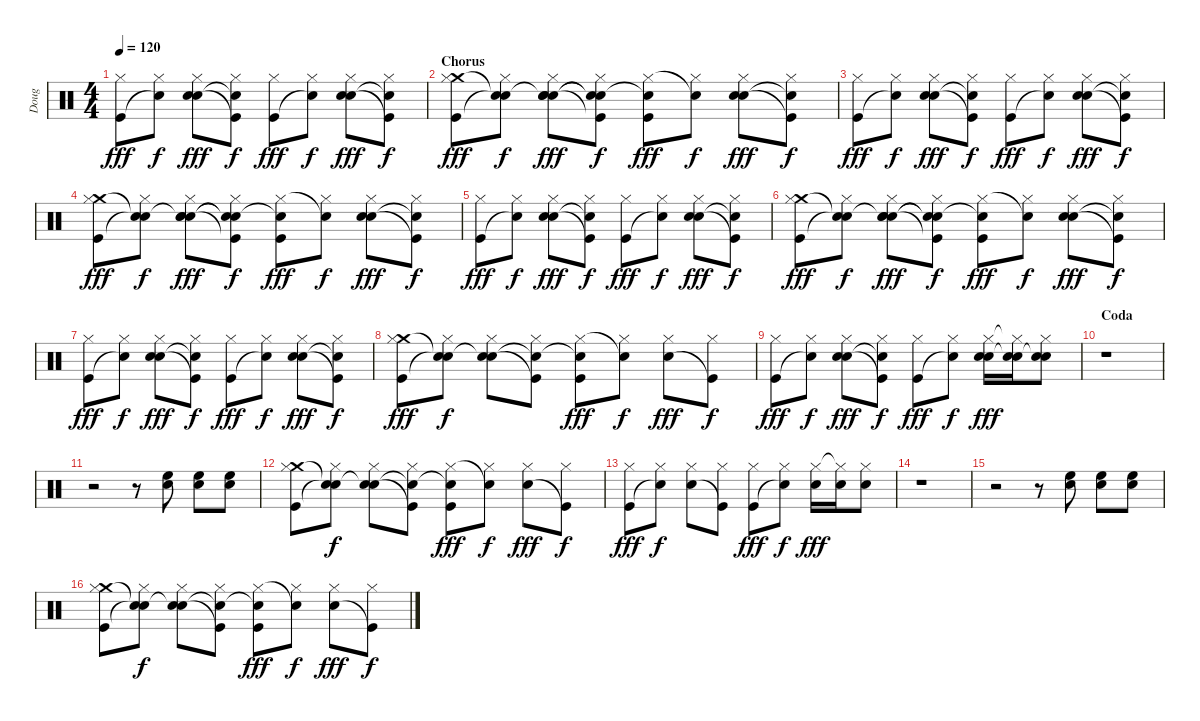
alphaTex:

\track ("Doug" "Doug") {instrument percussion}
\staff {score}
\articulation defaults
\ts (4 4)
\tempo 120
\clef neutral
\ks c
("Hi-Hat (closed)" "Kick (hit)").8{dy fff} ("Hi-Hat (closed)" "Snare (hit)"{t}).8{dy f} ("Hand Clap (hit)" "Hi-Hat (closed)" "Snare (hit) 2").8{dy fff} ("Snare (hit)"{t} "Hi-Hat (closed)" "Kick (hit)"{t}).8{dy f} ("Hi-Hat (closed)" "Kick (hit)").8{dy fff} ("Hi-Hat (closed)" "Snare (hit)"{t}).8{dy f} ("Hand Clap (hit)" "Hi-Hat (closed)" "Snare (hit) 2").8{dy fff} ("Snare (hit)"{t} "Hi-Hat (closed)" "Kick (hit)"{t}).8{dy f} |
\section ("" "Chorus")
("Crash medium (hit)" "Hi-Hat (closed)" "Kick (hit)").8{dy fff} ("Snare (hit)"{t} "Hi-Hat (closed)" "Snare (hit)"{t}).8{dy f} ("Snare (hit)"{t} "Hi-Hat (closed)" "Snare (hit) 2" "Hand Clap (hit)").8{dy fff} ("Snare (hit)"{t} "Hi-Hat (closed)" "Kick (hit)"{t} "Snare (hit)"{t}).8{dy f} ("Snare (hit)"{t} "Hi-Hat (closed)" "Kick (hit)").8{dy fff} ("Hi-Hat (closed)" "Snare (hit)"{t}).8{dy f} ("Hi-Hat (closed)" "Snare (hit) 2" "Hand Clap (hit)").8{dy fff} ("Hi-Hat (closed)" "Kick (hit)"{t} "Snare (hit)"{t}).8{dy f} |
("Hi-Hat (closed)" "Kick (hit)").8{dy fff} ("Hi-Hat (closed)" "Snare (hit)"{t}).8{dy f} ("Hand Clap (hit)" "Hi-Hat (closed)" "Snare (hit) 2").8{dy fff} ("Snare (hit)"{t} "Hi-Hat (closed)" "Kick (hit)"{t}).8{dy f} ("Hi-Hat (closed)" "Kick (hit)").8{dy fff} ("Hi-Hat (closed)" "Snare (hit)"{t}).8{dy f} ("Hand Clap (hit)" "Hi-Hat (closed)" "Snare (hit) 2").8{dy fff} ("Snare (hit)"{t} "Hi-Hat (closed)" "Kick (hit)"{t}).8{dy f} |
("Crash medium (hit)" "Hi-Hat (closed)" "Kick (hit)").8{dy fff} ("Snare (hit)"{t} "Hi-Hat (closed)" "Snare (hit)"{t}).8{dy f} ("Snare (hit)"{t} "Hi-Hat (closed)" "Snare (hit) 2" "Hand Clap (hit)").8{dy fff} ("Snare (hit)"{t} "Hi-Hat (closed)" "Kick (hit)"{t} "Snare (hit)"{t}).8{dy f} ("Snare (hit)"{t} "Hi-Hat (closed)" "Kick (hit)").8{dy fff} ("Hi-Hat (closed)" "Snare (hit)"{t}).8{dy f} ("Hi-Hat (closed)" "Snare (hit) 2" "Hand Clap (hit)").8{dy fff} ("Hi-Hat (closed)" "Kick (hit)"{t} "Snare (hit)"{t}).8{dy f} |
("Hi-Hat (closed)" "Kick (hit)").8{dy fff} ("Hi-Hat (closed)" "Snare (hit)"{t}).8{dy f} ("Hand Clap (hit)" "Hi-Hat (closed)" "Snare (hit) 2").8{dy fff} ("Snare (hit)"{t} "Hi-Hat (closed)" "Kick (hit)"{t}).8{dy f} ("Hi-Hat (closed)" "Kick (hit)").8{dy fff} ("Hi-Hat (closed)" "Snare (hit)"{t}).8{dy f} ("Hand Clap (hit)" "Hi-Hat (closed)" "Snare (hit) 2").8{dy fff} ("Snare (hit)"{t} "Hi-Hat (closed)" "Kick (hit)"{t}).8{dy f} |
("Crash medium (hit)" "Hi-Hat (closed)" "Kick (hit)").8{dy fff} ("Snare (hit)"{t} "Hi-Hat (closed)" "Snare (hit)"{t}).8{dy f} ("Snare (hit)"{t} "Hi-Hat (closed)" "Snare (hit) 2" "Hand Clap (hit)").8{dy fff} ("Snare (hit)"{t} "Hi-Hat (closed)" "Kick (hit)"{t} "Snare (hit)"{t}).8{dy f} ("Snare (hit)"{t} "Hi-Hat (closed)" "Kick (hit)").8{dy fff} ("Hi-Hat (closed)" "Snare (hit)"{t}).8{dy f} ("Hi-Hat (closed)" "Snare (hit) 2" "Hand Clap (hit)").8{dy fff} ("Hi-Hat (closed)" "Kick (hit)"{t} "Snare (hit)"{t}).8{dy f} |
("Hi-Hat (closed)" "Kick (hit)").8{dy fff} ("Hi-Hat (closed)" "Snare (hit)"{t}).8{dy f} ("Hand Clap (hit)" "Hi-Hat (closed)" "Snare (hit) 2").8{dy fff} ("Snare (hit)"{t} "Hi-Hat (closed)" "Kick (hit)"{t}).8{dy f} ("Hi-Hat (closed)" "Kick (hit)").8{dy fff} ("Hi-Hat (closed)" "Snare (hit)"{t}).8{dy f} ("Hand Clap (hit)" "Hi-Hat (closed)" "Snare (hit) 2").8{dy fff} ("Snare (hit)"{t} "Hi-Hat (closed)" "Kick (hit)"{t}).8{dy f} |
("Crash medium (hit)" "Hi-Hat (closed)" "Kick (hit)").8{dy fff} ("Snare (hit)"{t} "Hi-Hat (closed)" "Snare (hit)"{t}).8{dy f} ("Snare (hit)"{t} "Hi-Hat (closed)" "Snare (hit) 2").8 ("Snare (hit)"{t} "Hi-Hat (closed)" "Kick (hit)"{t}).8 ("Snare (hit)"{t} "Hi-Hat (closed)" "Kick (hit)").8{dy fff} ("Hi-Hat (closed)" "Snare (hit)"{t}).8{dy f} ("Hi-Hat (closed)" "Snare (hit) 2").8{dy fff} ("Hi-Hat (closed)" "Kick (hit)"{t}).8{dy f} |
("Hi-Hat (closed)" "Kick (hit)").8{dy fff} ("Hi-Hat (closed)" "Snare (hit)"{t}).8{dy f} ("Hand Clap (hit)" "Hi-Hat (closed)" "Snare (hit) 2").8{dy fff} ("Snare (hit)"{t} "Hi-Hat (closed)" "Kick (hit)"{t}).8{dy f} ("Hi-Hat (closed)" "Kick (hit)").8{dy fff} ("Hi-Hat (closed)" "Snare (hit)"{t}).8{dy f} ("Hand Clap (hit)" "Hi-Hat (closed)" "Snare (hit) 2").16{dy fff} ("Snare (hit)"{t} "Hi-Hat (closed)"{t} "Snare (hit) 2").16 ("Snare (hit)"{t} "Hi-Hat (closed)" "Snare (hit) 2").8 |
\section ("" "Coda")
r.1 |
r.2 r.8 ("High Floor Tom (hit)" "Snare (hit) 2").8 ("High Floor Tom (hit)" "Snare (hit) 2").8 ("High Floor Tom (hit)" "Snare (hit) 2").8 |
("Crash medium (hit)" "Hi-Hat (closed)" "Kick (hit)").8 ("Snare (hit)"{t} "Hi-Hat (closed)" "Snare (hit)"{t}).8{dy f} ("Snare (hit)"{t} "Hi-Hat (closed)" "Snare (hit) 2").8 ("Snare (hit)"{t} "Hi-Hat (closed)" "Kick (hit)"{t}).8 ("Snare (hit)"{t} "Hi-Hat (closed)" "Kick (hit)").8{dy fff} ("Hi-Hat (closed)" "Snare (hit)"{t}).8{dy f} ("Hi-Hat (closed)" "Snare (hit) 2").8{dy fff} ("Hi-Hat (closed)" "Kick (hit)"{t}).8{dy f} |
("Hi-Hat (closed)" "Kick (hit)").8{dy fff} ("Hi-Hat (closed)" "Snare (hit)"{t}).8{dy f} ("Hi-Hat (closed)" "Snare (hit) 2").8 ("Hi-Hat (closed)" "Kick (hit)"{t}).8 ("Hi-Hat (closed)" "Kick (hit)").8{dy fff} ("Hi-Hat (closed)" "Snare (hit)"{t}).8{dy f} ("Hi-Hat (closed)" "Snare (hit) 2").16{dy fff} ("Hi-Hat (closed)"{t} "Snare (hit) 2").16 ("Hi-Hat (closed)" "Snare (hit) 2").8 |
r.1 |
r.2 r.8 ("High Floor Tom (hit)" "Snare (hit) 2").8 ("High Floor Tom (hit)" "Snare (hit) 2").8 ("High Floor Tom (hit)" "Snare (hit) 2").8 |
("Crash medium (hit)" "Hi-Hat (closed)" "Kick (hit)").8 ("Snare (hit)"{t} "Hi-Hat (closed)" "Snare (hit)"{t}).8{dy f} ("Snare (hit)"{t} "Hi-Hat (closed)" "Snare (hit) 2").8 ("Snare (hit)"{t} "Hi-Hat (closed)" "Kick (hit)"{t}).8 ("Snare (hit)"{t} "Hi-Hat (closed)" "Kick (hit)").8{dy fff} ("Hi-Hat (closed)" "Snare (hit)"{t}).8{dy f} ("Hi-Hat (closed)" "Snare (hit) 2").8{dy fff} ("Hi-Hat (closed)" "Kick (hit)"{t}).8{dy f}
